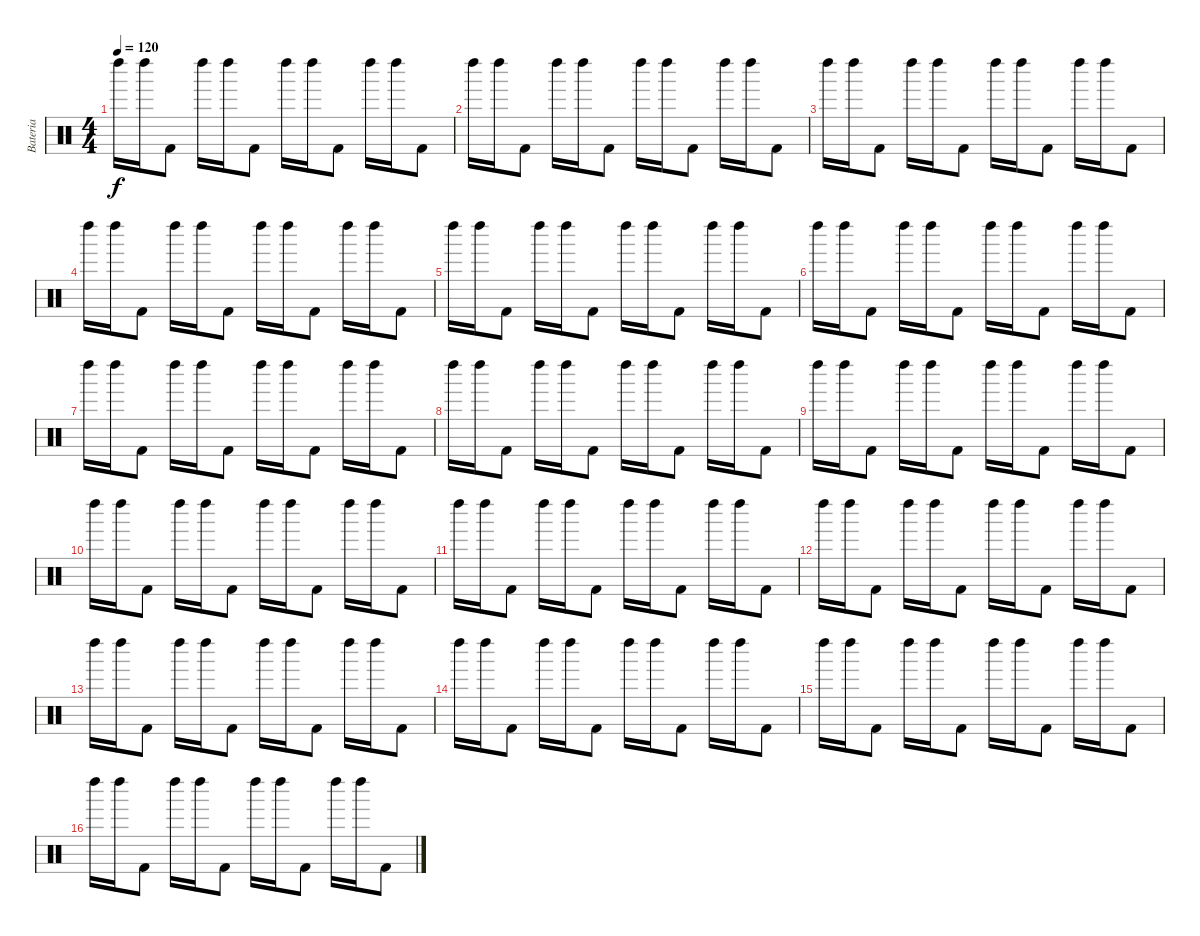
\track ("Bateria" "Bateria") {instrument percussion}
\staff {score}
\articulation defaults
\ts (4 4)
\tempo 120
\clef neutral
\ks c "Left Maraca (hit)".16{dy f} "Left Maraca (hit)".16 "Kick (hit) 2".8 "Left Maraca (hit)".16 "Left Maraca (hit)".16 "Kick (hit) 2".8 "Left Maraca (hit)".16 "Left Maraca (hit)".16 "Kick (hit) 2".8 "Left Maraca (hit)".16 "Left Maraca (hit)".16 "Kick (hit) 2".8
|
"Left Maraca (hit)".16 "Left Maraca (hit)".16 "Kick (hit) 2".8 "Left Maraca (hit)".16 "Left Maraca (hit)".16 "Kick (hit) 2".8 "Left Maraca (hit)".16 "Left Maraca (hit)".16 "Kick (hit) 2".8 "Left Maraca (hit)".16 "Left Maraca (hit)".16 "Kick (hit) 2".8 |
"Left Maraca (hit)".16 "Left Maraca (hit)".16 "Kick (hit) 2".8 "Left Maraca (hit)".16 "Left Maraca (hit)".16 "Kick (hit) 2".8 "Left Maraca (hit)".16 "Left Maraca (hit)".16 "Kick (hit) 2".8 "Left Maraca (hit)".16 "Left Maraca (hit)".16 "Kick (hit) 2".8 |
"Left Maraca (hit)".16 "Left Maraca (hit)".16 "Kick (hit) 2".8 "Left Maraca (hit)".16 "Left Maraca (hit)".16 "Kick (hit) 2".8 "Left Maraca (hit)".16 "Left Maraca (hit)".16 "Kick (hit) 2".8 "Left Maraca (hit)".16 "Left Maraca (hit)".16 "Kick (hit) 2".8 |
"Left Maraca (hit)".16 "Left Maraca (hit)".16 "Kick (hit) 2".8 "Left Maraca (hit)".16 "Left Maraca (hit)".16 "Kick (hit) 2".8 "Left Maraca (hit)".16 "Left Maraca (hit)".16 "Kick (hit) 2".8 "Left Maraca (hit)".16 "Left Maraca (hit)".16 "Kick (hit) 2".8 |
"Left Maraca (hit)".16 "Left Maraca (hit)".16 "Kick (hit) 2".8 "Left Maraca (hit)".16 "Left Maraca (hit)".16 "Kick (hit) 2".8 "Left Maraca (hit)".16 "Left Maraca (hit)".16 "Kick (hit) 2".8 "Left Maraca (hit)".16 "Left Maraca (hit)".16 "Kick (hit) 2".8 |
"Left Maraca (hit)".16 "Left Maraca (hit)".16 "Kick (hit) 2".8 "Left Maraca (hit)".16 "Left Maraca (hit)".16 "Kick (hit) 2".8 "Left Maraca (hit)".16 "Left Maraca (hit)".16 "Kick (hit) 2".8 "Left Maraca (hit)".16 "Left Maraca (hit)".16 "Kick (hit) 2".8 |
"Left Maraca (hit)".16 "Left Maraca (hit)".16 "Kick (hit) 2".8 "Left Maraca (hit)".16 "Left Maraca (hit)".16 "Kick (hit) 2".8 "Left Maraca (hit)".16 "Left Maraca (hit)".16 "Kick (hit) 2".8 "Left Maraca (hit)".16 "Left Maraca (hit)".16 "Kick (hit) 2".8 |
"Left Maraca (hit)".16 "Left Maraca (hit)".16 "Kick (hit) 2".8 "Left Maraca (hit)".16 "Left Maraca (hit)".16 "Kick (hit) 2".8 "Left Maraca (hit)".16 "Left Maraca (hit)".16 "Kick (hit) 2".8 "Left Maraca (hit)".16 "Left Maraca (hit)".16 "Kick (hit) 2".8 |
"Left Maraca (hit)".16 "Left Maraca (hit)".16 "Kick (hit) 2".8 "Left Maraca (hit)".16 "Left Maraca (hit)".16 "Kick (hit) 2".8 "Left Maraca (hit)".16 "Left Maraca (hit)".16 "Kick (hit) 2".8 "Left Maraca (hit)".16 "Left Maraca (hit)".16 "Kick (hit) 2".8 |
"Left Maraca (hit)".16 "Left Maraca (hit)".16 "Kick (hit) 2".8 "Left Maraca (hit)".16 "Left Maraca (hit)".16 "Kick (hit) 2".8 "Left Maraca (hit)".16 "Left Maraca (hit)".16 "Kick (hit) 2".8 "Left Maraca (hit)".16 "Left Maraca (hit)".16 "Kick (hit) 2".8 |
"Left Maraca (hit)".16 "Left Maraca (hit)".16 "Kick (hit) 2".8 "Left Maraca (hit)".16 "Left Maraca (hit)".16 "Kick (hit) 2".8 "Left Maraca (hit)".16 "Left Maraca (hit)".16 "Kick (hit) 2".8 "Left Maraca (hit)".16 "Left Maraca (hit)".16 "Kick (hit) 2".8 |
"Left Maraca (hit)".16 "Left Maraca (hit)".16 "Kick (hit) 2".8 "Left Maraca (hit)".16 "Left Maraca (hit)".16 "Kick (hit) 2".8 "Left Maraca (hit)".16 "Left Maraca (hit)".16 "Kick (hit) 2".8 "Left Maraca (hit)".16 "Left Maraca (hit)".16 "Kick (hit) 2".8 |
"Left Maraca (hit)".16 "Left Maraca (hit)".16 "Kick (hit) 2".8 "Left Maraca (hit)".16 "Left Maraca (hit)".16 "Kick (hit) 2".8 "Left Maraca (hit)".16 "Left Maraca (hit)".16 "Kick (hit) 2".8 "Left Maraca (hit)".16 "Left Maraca (hit)".16 "Kick (hit) 2".8 |
"Left Maraca (hit)".16 "Left Maraca (hit)".16 "Kick (hit) 2".8 "Left Maraca (hit)".16 "Left Maraca (hit)".16 "Kick (hit) 2".8 "Left Maraca (hit)".16 "Left Maraca (hit)".16 "Kick (hit) 2".8 "Left Maraca (hit)".16 "Left Maraca (hit)".16 "Kick (hit) 2".8 |
"Left Maraca (hit)".16 "Left Maraca (hit)".16 "Kick (hit) 2".8 "Left Maraca (hit)".16 "Left Maraca (hit)".16 "Kick (hit) 2".8 "Left Maraca (hit)".16 "Left Maraca (hit)".16 "Kick (hit) 2".8 "Left Maraca (hit)".16 "Left Maraca (hit)".16 "Kick (hit) 2".8
